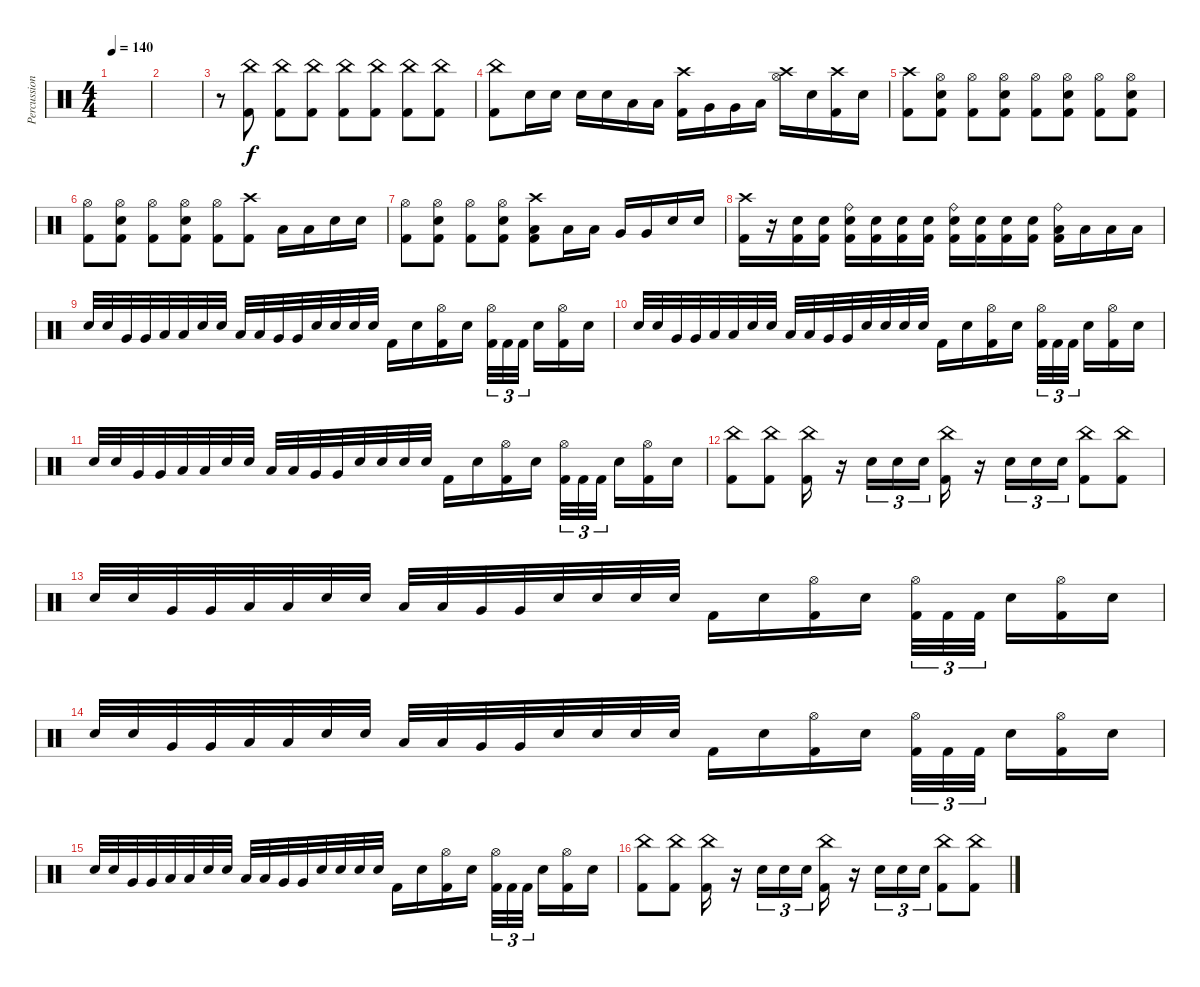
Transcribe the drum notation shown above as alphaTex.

\track ("Percussion" "Percussion") {instrument percussion}
\staff {score}
\articulation defaults
\ts (4 4)
\tempo 140
\clef neutral
\ks c
|
|
r.8 ("China (hit)" "Kick (hit) 2").8 ("China (hit)" "Kick (hit) 2").8 ("China (hit)" "Kick (hit) 2").8 ("China (hit)" "Kick (hit) 2").8 ("China (hit)" "Kick (hit) 2").8 ("China (hit)" "Kick (hit) 2").8 ("China (hit)" "Kick (hit) 2").8 |
("China (hit)" "Kick (hit) 2").8 "Snare (hit) 2".16 "Snare (hit) 2".16 "Snare (hit) 2".16 "Snare (hit) 2".16 "Low Tom (hit)".16 "Low Tom (hit)".16 ("Crash high (hit)" "Kick (hit) 2").16 "Very Low Tom (hit)".16 "Very Low Tom (hit)".16 "Low Floor Tom (hit)".16 ("Crash high (hit)" "Hi-Hat (open)").16 "Snare (hit) 2".16 ("Crash high (hit)" "Kick (hit) 2").16 "Snare (hit) 2".16 |
("Crash high (hit)" "Kick (hit) 2").8 ("Hi-Hat (open)" "Snare (hit) 2" "Kick (hit) 2").8 ("Hi-Hat (open)" "Kick (hit) 2").8 ("Hi-Hat (open)" "Snare (hit) 2" "Kick (hit) 2").8 ("Hi-Hat (open)" "Kick (hit) 2").8 ("Hi-Hat (open)" "Snare (hit) 2" "Kick (hit) 2").8 ("Hi-Hat (open)" "Kick (hit) 2").8 ("Hi-Hat (open)" "Snare (hit) 2" "Kick (hit) 2").8 |
("Hi-Hat (open)" "Kick (hit) 2").8 ("Hi-Hat (open)" "Snare (hit) 2" "Kick (hit) 2").8 ("Hi-Hat (open)" "Kick (hit) 2").8 ("Hi-Hat (open)" "Snare (hit) 2" "Kick (hit) 2").8 ("Hi-Hat (open)" "Kick (hit) 2").8 ("Crash high (hit)" "Kick (hit) 2").8 "Low Tom (hit)".16 "Low Tom (hit)".16 "Snare (hit) 2".16 "Snare (hit) 2".16 |
("Hi-Hat (open)" "Kick (hit) 2").8 ("Hi-Hat (open)" "Snare (hit) 2" "Kick (hit) 2").8 ("Hi-Hat (open)" "Kick (hit) 2").8 ("Hi-Hat (open)" "Snare (hit) 2" "Kick (hit) 2").8 ("Crash high (hit)" "Low Tom (hit)" "Kick (hit) 2").8 "Low Tom (hit)".16 "Low Tom (hit)".16 "Very Low Tom (hit)".16 "Very Low Tom (hit)".16 "Snare (hit) 2".16 "Snare (hit) 2".16 |
("Crash high (hit)" "Kick (hit) 2").16 r.16 ("Snare (hit) 2" "Kick (hit) 2").16 ("Snare (hit) 2" "Kick (hit) 2").16 ("Ride (bell)" "Snare (hit) 2" "Kick (hit) 2").16 ("Snare (hit) 2" "Kick (hit) 2").16 ("Snare (hit) 2" "Kick (hit) 2").16 ("Snare (hit) 2" "Kick (hit) 2").16 ("Ride (bell)" "Snare (hit) 2" "Kick (hit) 2").16 ("Snare (hit) 2" "Kick (hit) 2").16 ("Snare (hit) 2" "Kick (hit) 2").16 ("Snare (hit) 2" "Kick (hit) 2").16 ("Ride (bell)" "Low Tom (hit)" "Kick (hit) 2").16 "Low Tom (hit)".16 "Low Tom (hit)".16 "Low Tom (hit)".16 |
"Snare (hit) 2".32 "Snare (hit) 2".32 "Very Low Tom (hit)".32 "Very Low Tom (hit)".32 "Low Floor Tom (hit)".32 "Low Floor Tom (hit)".32 "Snare (hit) 2".32 "Snare (hit) 2".32 "Low Tom (hit)".32 "Low Tom (hit)".32 "Very Low Tom (hit)".32 "Very Low Tom (hit)".32 "Snare (hit) 2".32 "Snare (hit) 2".32 "Snare (hit) 2".32 "Snare (hit) 2".32 "Kick (hit) 2".16 "Snare (hit) 2".16 ("Hi-Hat (open)" "Kick (hit) 2").16 "Snare (hit) 2".16 ("Hi-Hat (open)" "Kick (hit) 2").32{tu (3 2)} "Kick (hit) 2".32{tu (3 2)} "Kick (hit) 2".32{tu (3 2)} "Snare (hit) 2".16 ("Hi-Hat (open)" "Kick (hit) 2").16 "Snare (hit) 2".16 |
"Snare (hit) 2".32 "Snare (hit) 2".32 "Very Low Tom (hit)".32 "Very Low Tom (hit)".32 "Low Floor Tom (hit)".32 "Low Floor Tom (hit)".32 "Snare (hit) 2".32 "Snare (hit) 2".32 "Low Tom (hit)".32 "Low Tom (hit)".32 "Very Low Tom (hit)".32 "Very Low Tom (hit)".32 "Snare (hit) 2".32 "Snare (hit) 2".32 "Snare (hit) 2".32 "Snare (hit) 2".32 "Kick (hit) 2".16 "Snare (hit) 2".16 ("Hi-Hat (open)" "Kick (hit) 2").16 "Snare (hit) 2".16 ("Hi-Hat (open)" "Kick (hit) 2").32{tu (3 2)} "Kick (hit) 2".32{tu (3 2)} "Kick (hit) 2".32{tu (3 2)} "Snare (hit) 2".16 ("Hi-Hat (open)" "Kick (hit) 2").16 "Snare (hit) 2".16 |
"Snare (hit) 2".32 "Snare (hit) 2".32 "Very Low Tom (hit)".32 "Very Low Tom (hit)".32 "Low Floor Tom (hit)".32 "Low Floor Tom (hit)".32 "Snare (hit) 2".32 "Snare (hit) 2".32 "Low Tom (hit)".32 "Low Tom (hit)".32 "Very Low Tom (hit)".32 "Very Low Tom (hit)".32 "Snare (hit) 2".32 "Snare (hit) 2".32 "Snare (hit) 2".32 "Snare (hit) 2".32 "Kick (hit) 2".16 "Snare (hit) 2".16 ("Hi-Hat (open)" "Kick (hit) 2").16 "Snare (hit) 2".16 ("Hi-Hat (open)" "Kick (hit) 2").32{tu (3 2)} "Kick (hit) 2".32{tu (3 2)} "Kick (hit) 2".32{tu (3 2)} "Snare (hit) 2".16 ("Hi-Hat (open)" "Kick (hit) 2").16 "Snare (hit) 2".16 |
("China (hit)" "Kick (hit) 2").8 ("China (hit)" "Kick (hit) 2").8 ("China (hit)" "Kick (hit) 2").16 r.16 "Snare (hit) 2".16{tu (3 2)} "Snare (hit) 2".16{tu (3 2)} "Snare (hit) 2".16{tu (3 2)} ("China (hit)" "Kick (hit) 2").16 r.16 "Snare (hit) 2".16{tu (3 2)} "Snare (hit) 2".16{tu (3 2)} "Snare (hit) 2".16{tu (3 2)} ("China (hit)" "Kick (hit) 2").8 ("China (hit)" "Kick (hit) 2").8 |
"Snare (hit) 2".32 "Snare (hit) 2".32 "Very Low Tom (hit)".32 "Very Low Tom (hit)".32 "Low Floor Tom (hit)".32 "Low Floor Tom (hit)".32 "Snare (hit) 2".32 "Snare (hit) 2".32 "Low Tom (hit)".32 "Low Tom (hit)".32 "Very Low Tom (hit)".32 "Very Low Tom (hit)".32 "Snare (hit) 2".32 "Snare (hit) 2".32 "Snare (hit) 2".32 "Snare (hit) 2".32 "Kick (hit) 2".16 "Snare (hit) 2".16 ("Hi-Hat (open)" "Kick (hit) 2").16 "Snare (hit) 2".16 ("Hi-Hat (open)" "Kick (hit) 2").32{tu (3 2)} "Kick (hit) 2".32{tu (3 2)} "Kick (hit) 2".32{tu (3 2)} "Snare (hit) 2".16 ("Hi-Hat (open)" "Kick (hit) 2").16 "Snare (hit) 2".16 |
"Snare (hit) 2".32 "Snare (hit) 2".32 "Very Low Tom (hit)".32 "Very Low Tom (hit)".32 "Low Floor Tom (hit)".32 "Low Floor Tom (hit)".32 "Snare (hit) 2".32 "Snare (hit) 2".32 "Low Tom (hit)".32 "Low Tom (hit)".32 "Very Low Tom (hit)".32 "Very Low Tom (hit)".32 "Snare (hit) 2".32 "Snare (hit) 2".32 "Snare (hit) 2".32 "Snare (hit) 2".32 "Kick (hit) 2".16 "Snare (hit) 2".16 ("Hi-Hat (open)" "Kick (hit) 2").16 "Snare (hit) 2".16 ("Hi-Hat (open)" "Kick (hit) 2").32{tu (3 2)} "Kick (hit) 2".32{tu (3 2)} "Kick (hit) 2".32{tu (3 2)} "Snare (hit) 2".16 ("Hi-Hat (open)" "Kick (hit) 2").16 "Snare (hit) 2".16 |
"Snare (hit) 2".32 "Snare (hit) 2".32 "Very Low Tom (hit)".32 "Very Low Tom (hit)".32 "Low Floor Tom (hit)".32 "Low Floor Tom (hit)".32 "Snare (hit) 2".32 "Snare (hit) 2".32 "Low Tom (hit)".32 "Low Tom (hit)".32 "Very Low Tom (hit)".32 "Very Low Tom (hit)".32 "Snare (hit) 2".32 "Snare (hit) 2".32 "Snare (hit) 2".32 "Snare (hit) 2".32 "Kick (hit) 2".16 "Snare (hit) 2".16 ("Hi-Hat (open)" "Kick (hit) 2").16 "Snare (hit) 2".16 ("Hi-Hat (open)" "Kick (hit) 2").32{tu (3 2)} "Kick (hit) 2".32{tu (3 2)} "Kick (hit) 2".32{tu (3 2)} "Snare (hit) 2".16 ("Hi-Hat (open)" "Kick (hit) 2").16 "Snare (hit) 2".16 |
("China (hit)" "Kick (hit) 2").8 ("China (hit)" "Kick (hit) 2").8 ("China (hit)" "Kick (hit) 2").16 r.16 "Snare (hit) 2".16{tu (3 2)} "Snare (hit) 2".16{tu (3 2)} "Snare (hit) 2".16{tu (3 2)} ("China (hit)" "Kick (hit) 2").16 r.16 "Snare (hit) 2".16{tu (3 2)} "Snare (hit) 2".16{tu (3 2)} "Snare (hit) 2".16{tu (3 2)} ("China (hit)" "Kick (hit) 2").8 ("China (hit)" "Kick (hit) 2").8
